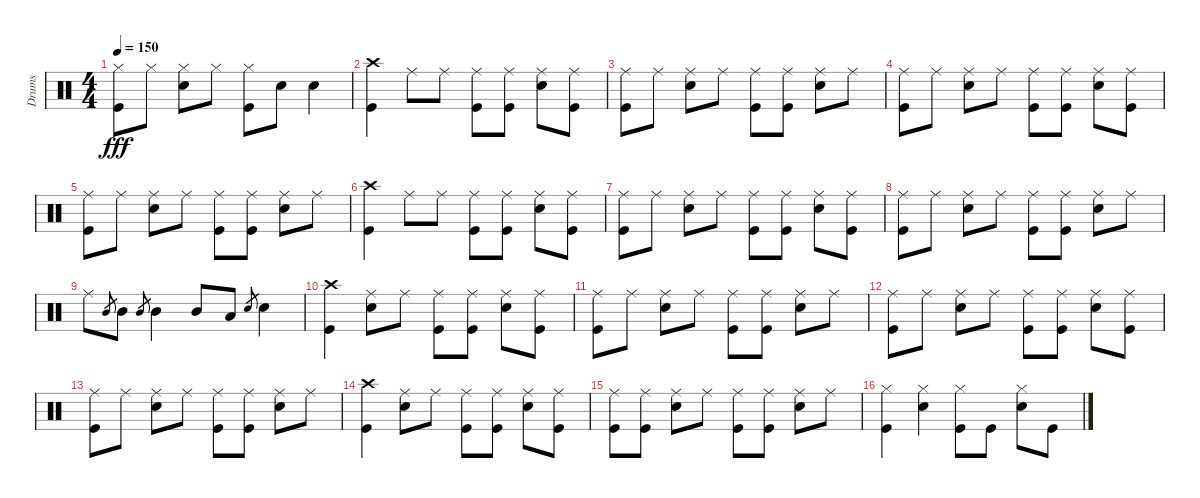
\track ("Drums" "Drums") {instrument percussion}
\staff {score}
\articulation defaults
\ts (4 4)
\tempo 150
\clef neutral
\ks c
("Hi-Hat (closed)" "Kick (hit)").8{dy fff} "Hi-Hat (closed)".8 ("Hi-Hat (closed)" "Snare (hit) 2").8 "Hi-Hat (closed)".8 ("Hi-Hat (closed)" "Kick (hit)").8 "Snare (hit) 2".8 "Snare (hit) 2".4 |
("Crash high (hit)" "Kick (hit)").4 "Ride (middle)".8 "Ride (middle)".8 ("Ride (middle)" "Kick (hit)").8 ("Ride (middle)" "Kick (hit)").8 ("Ride (middle)" "Snare (hit) 2").8 ("Ride (middle)" "Kick (hit)").8 |
("Ride (middle)" "Kick (hit)").8 "Ride (middle)".8 ("Ride (middle)" "Snare (hit) 2").8 "Ride (middle)".8 ("Ride (middle)" "Kick (hit)").8 ("Ride (middle)" "Kick (hit)").8 ("Ride (middle)" "Snare (hit) 2").8 "Ride (middle)".8 |
("Ride (middle)" "Kick (hit)").8 "Ride (middle)".8 ("Ride (middle)" "Snare (hit) 2").8 "Ride (middle)".8 ("Ride (middle)" "Kick (hit)").8 ("Ride (middle)" "Kick (hit)").8 ("Ride (middle)" "Snare (hit) 2").8 ("Ride (middle)" "Kick (hit)").8 |
("Ride (middle)" "Kick (hit)").8 "Ride (middle)".8 ("Ride (middle)" "Snare (hit) 2").8 "Ride (middle)".8 ("Ride (middle)" "Kick (hit)").8 ("Ride (middle)" "Kick (hit)").8 ("Ride (middle)" "Snare (hit) 2").8 "Ride (middle)".8 |
("Crash high (hit)" "Kick (hit)").4 "Ride (middle)".8 "Ride (middle)".8 ("Ride (middle)" "Kick (hit)").8 ("Ride (middle)" "Kick (hit)").8 ("Ride (middle)" "Snare (hit) 2").8 ("Ride (middle)" "Kick (hit)").8 |
("Ride (middle)" "Kick (hit)").8 "Ride (middle)".8 ("Ride (middle)" "Snare (hit) 2").8 "Ride (middle)".8 ("Ride (middle)" "Kick (hit)").8 ("Ride (middle)" "Kick (hit)").8 ("Ride (middle)" "Snare (hit) 2").8 ("Ride (middle)" "Kick (hit)").8 |
("Ride (middle)" "Kick (hit)").8 "Ride (middle)".8 ("Ride (middle)" "Snare (hit) 2").8 "Ride (middle)".8 ("Ride (middle)" "Kick (hit)").8 ("Ride (middle)" "Kick (hit)").8 ("Ride (middle)" "Snare (hit) 2").8 "Ride (middle)".8 |
"Ride (middle)".8 "Mid Tom (hit)".8{gr} "Mid Tom (hit)".8 "Mid Tom (hit)".8{gr} "Mid Tom (hit)".4 "Mid Tom (hit)".8 "Low Tom (hit)".8 "Snare (hit) 2".8{gr} "Snare (hit) 2".4 |
("Crash high (hit)" "Kick (hit)").4 ("Ride (middle)" "Snare (hit) 2").8 "Ride (middle)".8 ("Ride (middle)" "Kick (hit)").8 ("Ride (middle)" "Kick (hit)").8 ("Ride (middle)" "Snare (hit) 2").8 ("Ride (middle)" "Kick (hit)").8 |
("Ride (middle)" "Kick (hit)").8 "Ride (middle)".8 ("Ride (middle)" "Snare (hit) 2").8 "Ride (middle)".8 ("Ride (middle)" "Kick (hit)").8 ("Ride (middle)" "Kick (hit)").8 ("Ride (middle)" "Snare (hit) 2").8 "Ride (middle)".8 |
("Ride (middle)" "Kick (hit)").8 "Ride (middle)".8 ("Ride (middle)" "Snare (hit) 2").8 "Ride (middle)".8 ("Ride (middle)" "Kick (hit)").8 ("Ride (middle)" "Kick (hit)").8 ("Ride (middle)" "Snare (hit) 2").8 ("Ride (middle)" "Kick (hit)").8 |
("Ride (middle)" "Kick (hit)").8 "Ride (middle)".8 ("Ride (middle)" "Snare (hit) 2").8 "Ride (middle)".8 ("Ride (middle)" "Kick (hit)").8 ("Ride (middle)" "Kick (hit)").8 ("Ride (middle)" "Snare (hit) 2").8 "Ride (middle)".8 |
("Crash high (hit)" "Kick (hit)").4 ("Ride (middle)" "Snare (hit) 2").8 "Ride (middle)".8 ("Ride (middle)" "Kick (hit)").8 ("Ride (middle)" "Kick (hit)").8 ("Ride (middle)" "Snare (hit) 2").8 ("Ride (middle)" "Kick (hit)").8 |
("Ride (middle)" "Kick (hit)").8 ("Ride (middle)" "Kick (hit)").8 ("Ride (middle)" "Snare (hit) 2").8 "Ride (middle)".8 ("Ride (middle)" "Kick (hit)").8 ("Ride (middle)" "Kick (hit)").8 ("Ride (middle)" "Snare (hit) 2").8 "Ride (middle)".8 |
("Hi-Hat (closed)" "Kick (hit)").4 ("Hi-Hat (closed)" "Snare (hit) 2").4 ("Hi-Hat (closed)" "Kick (hit)").8 "Kick (hit)".8 ("Hi-Hat (closed)" "Snare (hit) 2").8 "Kick (hit)".8
